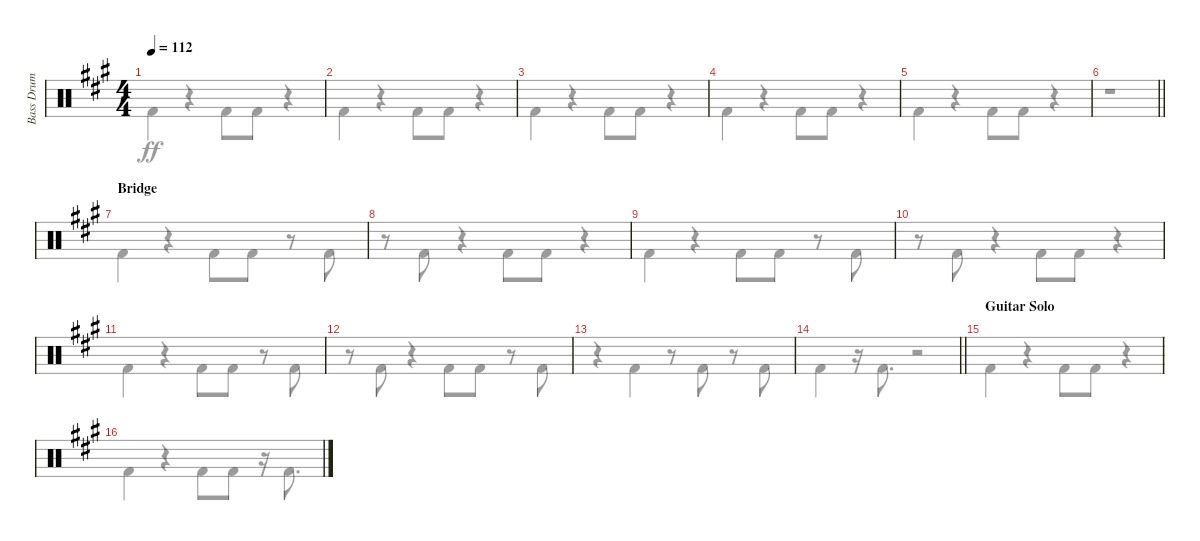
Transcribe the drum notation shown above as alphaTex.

\track ("Bass Drum" "Bass Drum") {instrument percussion}
\staff {score}
\articulation defaults
\voice
\ts (4 4)
\tempo 112
\clef neutral
\ks f#minor
|
|
|
|
|
\barLineRight lightlight
|
\section ("" "Bridge")
|
|
|
|
|
|
|
\barLineRight lightlight
|
\section ("" "Guitar Solo")
|
\voice
\clef neutral
\ks f#minor "Kick (hit) 2".4{dy ff}
r.4 "Kick (hit) 2".8 "Kick (hit) 2".8 r.4 |
"Kick (hit) 2".4 r.4 "Kick (hit) 2".8 "Kick (hit) 2".8 r.4 |
"Kick (hit) 2".4 r.4 "Kick (hit) 2".8 "Kick (hit) 2".8 r.4 |
"Kick (hit) 2".4 r.4 "Kick (hit) 2".8 "Kick (hit) 2".8 r.4 |
"Kick (hit) 2".4 r.4 "Kick (hit) 2".8 "Kick (hit) 2".8 r.4 |
\barLineRight lightlight
r.1 |
"Kick (hit) 2".4 r.4 "Kick (hit) 2".8 "Kick (hit) 2".8 r.8 "Kick (hit) 2".8 |
r.8 "Kick (hit) 2".8 r.4 "Kick (hit) 2".8 "Kick (hit) 2".8 r.4 |
"Kick (hit) 2".4 r.4 "Kick (hit) 2".8 "Kick (hit) 2".8 r.8 "Kick (hit) 2".8 |
r.8 "Kick (hit) 2".8 r.4 "Kick (hit) 2".8 "Kick (hit) 2".8 r.4 |
"Kick (hit) 2".4 r.4 "Kick (hit) 2".8 "Kick (hit) 2".8 r.8 "Kick (hit) 2".8 |
r.8 "Kick (hit) 2".8 r.4 "Kick (hit) 2".8 "Kick (hit) 2".8 r.8 "Kick (hit) 2".8 |
r.4 "Kick (hit) 2".4 r.8 "Kick (hit) 2".8 r.8 "Kick (hit) 2".8 |
\barLineRight lightlight "Kick (hit) 2".4
r.16 "Kick (hit) 2".8{d} r.2 |
"Kick (hit) 2".4 r.4 "Kick (hit) 2".8 "Kick (hit) 2".8 r.4 |
"Kick (hit) 2".4 r.4 "Kick (hit) 2".8 "Kick (hit) 2".8 r.16 "Kick (hit) 2".8{d}
